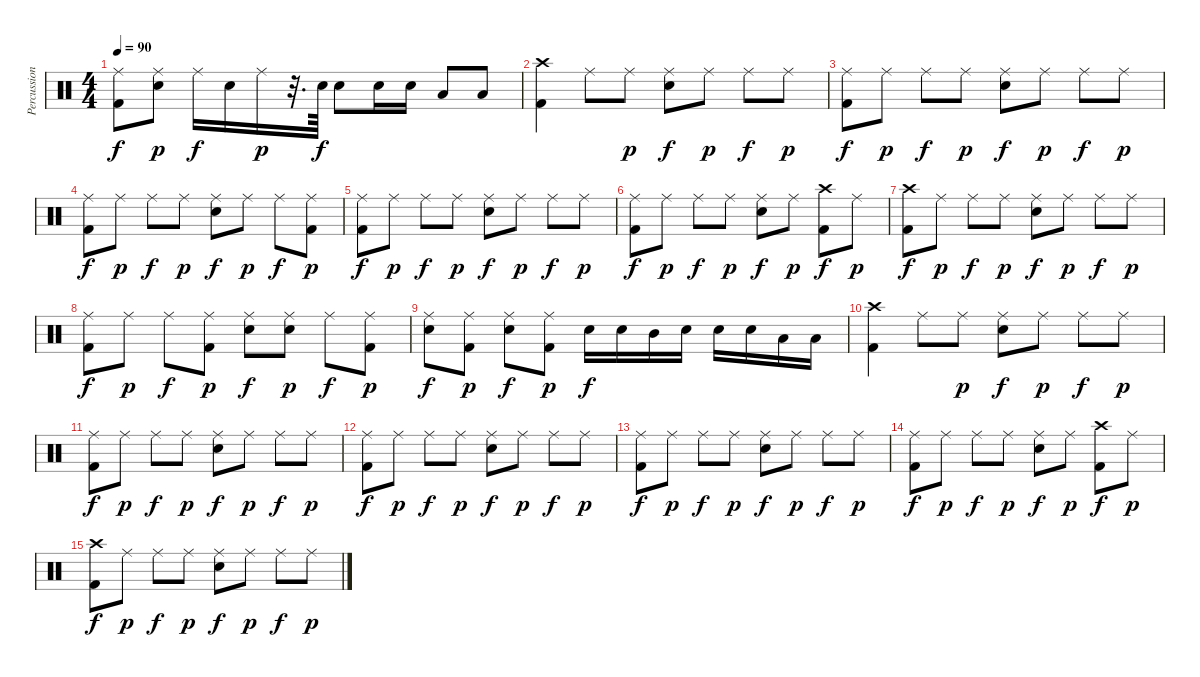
\track ("Percussion" "Percussion") {instrument percussion}
\staff {score}
\articulation defaults
\ts (4 4)
\tempo 90
\clef neutral
\ks c
("Ride (middle)" "Kick (hit) 2").8{dy f} ("Ride (middle)" "Electric Snare (hit)").8{dy p} "Ride (middle)".16{dy f} "Electric Snare (hit)".16 "Ride (middle)".16{dy p} r.32{d} "Electric Snare (hit)".64{dy f} "Electric Snare (hit)".8 "Electric Snare (hit)".16 "Electric Snare (hit)".16 "Low Tom (hit)".8 "Low Tom (hit)".8 |
("Crash high (hit)" "Kick (hit) 2").4 "Ride (middle)".8 "Ride (middle)".8{dy p} ("Ride (middle)" "Electric Snare (hit)").8{dy f} "Ride (middle)".8{dy p} "Ride (middle)".8{dy f} "Ride (middle)".8{dy p} |
("Ride (middle)" "Kick (hit) 2").8{dy f} "Ride (middle)".8{dy p} "Ride (middle)".8{dy f} "Ride (middle)".8{dy p} ("Ride (middle)" "Electric Snare (hit)").8{dy f} "Ride (middle)".8{dy p} "Ride (middle)".8{dy f} "Ride (middle)".8{dy p} |
("Ride (middle)" "Kick (hit) 2").8{dy f} "Ride (middle)".8{dy p} "Ride (middle)".8{dy f} "Ride (middle)".8{dy p} ("Ride (middle)" "Electric Snare (hit)").8{dy f} "Ride (middle)".8{dy p} "Ride (middle)".8{dy f} ("Ride (middle)" "Kick (hit) 2").8{dy p} |
("Ride (middle)" "Kick (hit) 2").8{dy f} "Ride (middle)".8{dy p} "Ride (middle)".8{dy f} "Ride (middle)".8{dy p} ("Ride (middle)" "Electric Snare (hit)").8{dy f} "Ride (middle)".8{dy p} "Ride (middle)".8{dy f} "Ride (middle)".8{dy p} |
("Ride (middle)" "Kick (hit) 2").8{dy f} "Ride (middle)".8{dy p} "Ride (middle)".8{dy f} "Ride (middle)".8{dy p} ("Ride (middle)" "Electric Snare (hit)").8{dy f} "Ride (middle)".8{dy p} ("Crash high (hit)" "Kick (hit) 2").8{dy f} "Ride (middle)".8{dy p} |
("Crash high (hit)" "Kick (hit) 2").8{dy f} "Ride (middle)".8{dy p} "Ride (middle)".8{dy f} "Ride (middle)".8{dy p} ("Ride (middle)" "Electric Snare (hit)").8{dy f} "Ride (middle)".8{dy p} "Ride (middle)".8{dy f} "Ride (middle)".8{dy p} |
("Ride (middle)" "Kick (hit) 2").8{dy f} "Ride (middle)".8{dy p} "Ride (middle)".8{dy f} ("Ride (middle)" "Kick (hit) 2").8{dy p} ("Ride (middle)" "Electric Snare (hit)").8{dy f} ("Ride (middle)" "Electric Snare (hit)").8{dy p} "Ride (middle)".8{dy f} ("Ride (middle)" "Kick (hit) 2").8{dy p} |
("Ride (middle)" "Electric Snare (hit)").8{dy f} ("Ride (middle)" "Kick (hit) 2").8{dy p} ("Ride (middle)" "Electric Snare (hit)").8{dy f} ("Ride (middle)" "Kick (hit) 2").8{dy p} "Electric Snare (hit)".16{dy f} "Electric Snare (hit)".16 "Mid Tom (hit)".16 "Electric Snare (hit)".16 "Electric Snare (hit)".16 "Electric Snare (hit)".16 "Low Tom (hit)".16 "Low Tom (hit)".16 |
("Crash high (hit)" "Kick (hit) 2").4 "Ride (middle)".8 "Ride (middle)".8{dy p} ("Ride (middle)" "Electric Snare (hit)").8{dy f} "Ride (middle)".8{dy p} "Ride (middle)".8{dy f} "Ride (middle)".8{dy p} |
("Ride (middle)" "Kick (hit) 2").8{dy f} "Ride (middle)".8{dy p} "Ride (middle)".8{dy f} "Ride (middle)".8{dy p} ("Ride (middle)" "Electric Snare (hit)").8{dy f} "Ride (middle)".8{dy p} "Ride (middle)".8{dy f} "Ride (middle)".8{dy p} |
("Ride (middle)" "Kick (hit) 2").8{dy f volume 0} "Ride (middle)".8{dy p} "Ride (middle)".8{dy f} "Ride (middle)".8{dy p} ("Ride (middle)" "Electric Snare (hit)").8{dy f} "Ride (middle)".8{dy p} "Ride (middle)".8{dy f} "Ride (middle)".8{dy p} |
("Ride (middle)" "Kick (hit) 2").8{dy f} "Ride (middle)".8{dy p} "Ride (middle)".8{dy f} "Ride (middle)".8{dy p} ("Ride (middle)" "Electric Snare (hit)").8{dy f} "Ride (middle)".8{dy p} "Ride (middle)".8{dy f} "Ride (middle)".8{dy p} |
("Ride (middle)" "Kick (hit) 2").8{dy f} "Ride (middle)".8{dy p} "Ride (middle)".8{dy f} "Ride (middle)".8{dy p} ("Ride (middle)" "Electric Snare (hit)").8{dy f} "Ride (middle)".8{dy p} ("Crash high (hit)" "Kick (hit) 2").8{dy f} "Ride (middle)".8{dy p} |
("Crash high (hit)" "Kick (hit) 2").8{dy f} "Ride (middle)".8{dy p} "Ride (middle)".8{dy f} "Ride (middle)".8{dy p} ("Ride (middle)" "Electric Snare (hit)").8{dy f} "Ride (middle)".8{dy p} "Ride (middle)".8{dy f} "Ride (middle)".8{dy p}
